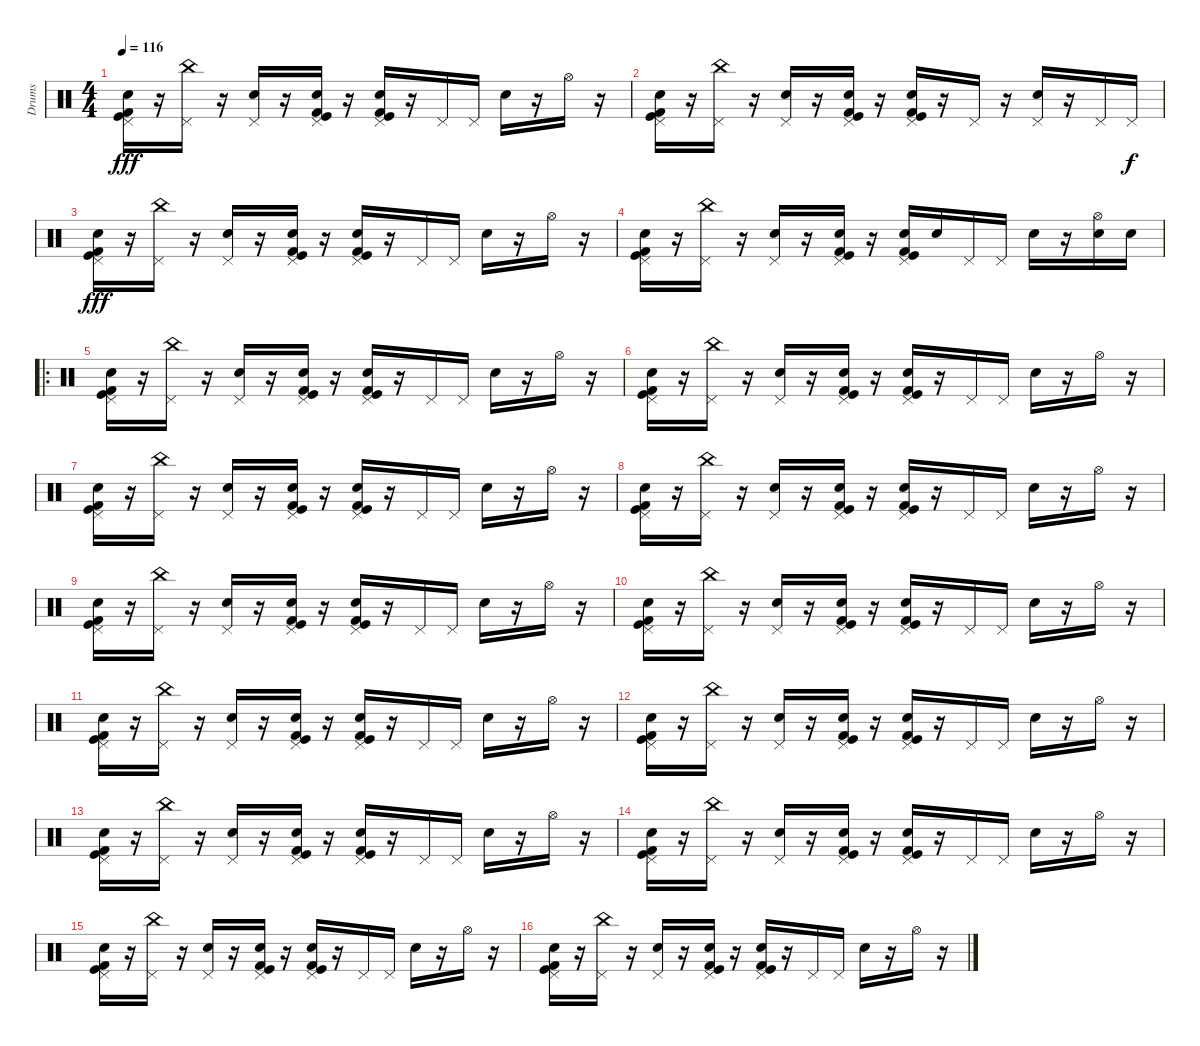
\track ("Drums" "Drums") {instrument percussion}
\staff {score}
\articulation defaults
\ts (4 4)
\tempo 116
\clef neutral
\ks c
("Snare (hit) 2" "Pedal Hi-Hat (hit)" "Kick (hit) 2" "Kick (hit)").16{dy fff} r.16 ("China (hit)" "Pedal Hi-Hat (hit)").16 r.16 ("Pedal Hi-Hat (hit)" "Electric Snare (hit)").16 r.16 ("Snare (hit) 2" "Pedal Hi-Hat (hit)" "Kick (hit) 2" "Kick (hit)").16 r.16 ("Snare (hit) 2" "Pedal Hi-Hat (hit)" "Kick (hit) 2" "Kick (hit)").16 r.16 "Pedal Hi-Hat (hit)".16 "Pedal Hi-Hat (hit)".16 "Electric Snare (hit)".16 r.16 "Hi-Hat (open)".16 r.16 |
("Snare (hit) 2" "Pedal Hi-Hat (hit)" "Kick (hit) 2" "Kick (hit)").16 r.16 ("China (hit)" "Pedal Hi-Hat (hit)").16 r.16 ("Pedal Hi-Hat (hit)" "Electric Snare (hit)").16 r.16 ("Snare (hit) 2" "Pedal Hi-Hat (hit)" "Kick (hit) 2" "Kick (hit)").16 r.16 ("Snare (hit) 2" "Pedal Hi-Hat (hit)" "Kick (hit) 2" "Kick (hit)").16 r.16 "Pedal Hi-Hat (hit)".16 r.16 ("Pedal Hi-Hat (hit)" "Electric Snare (hit)").16 r.16 "Pedal Hi-Hat (hit)".16 "Pedal Hi-Hat (hit)".16{dy f} |
("Snare (hit) 2" "Pedal Hi-Hat (hit)" "Kick (hit) 2" "Kick (hit)").16{dy fff} r.16 ("China (hit)" "Pedal Hi-Hat (hit)").16 r.16 ("Pedal Hi-Hat (hit)" "Electric Snare (hit)").16 r.16 ("Snare (hit) 2" "Pedal Hi-Hat (hit)" "Kick (hit) 2" "Kick (hit)").16 r.16 ("Snare (hit) 2" "Pedal Hi-Hat (hit)" "Kick (hit) 2" "Kick (hit)").16 r.16 "Pedal Hi-Hat (hit)".16 "Pedal Hi-Hat (hit)".16 "Electric Snare (hit)".16 r.16 "Hi-Hat (open)".16 r.16 |
("Snare (hit) 2" "Pedal Hi-Hat (hit)" "Kick (hit) 2" "Kick (hit)").16 r.16 ("China (hit)" "Pedal Hi-Hat (hit)").16 r.16 ("Pedal Hi-Hat (hit)" "Electric Snare (hit)").16 r.16 ("Snare (hit) 2" "Pedal Hi-Hat (hit)" "Kick (hit) 2" "Kick (hit)").16 r.16 ("Snare (hit) 2" "Pedal Hi-Hat (hit)" "Kick (hit) 2" "Kick (hit)").16 "Electric Snare (hit)".16 "Pedal Hi-Hat (hit)".16 "Pedal Hi-Hat (hit)".16 "Electric Snare (hit)".16 r.16 ("Electric Snare (hit)" "Hi-Hat (open)").16 "Electric Snare (hit)".16 |
\ro
("Snare (hit) 2" "Pedal Hi-Hat (hit)" "Kick (hit) 2" "Kick (hit)").16 r.16 ("China (hit)" "Pedal Hi-Hat (hit)").16 r.16 ("Pedal Hi-Hat (hit)" "Electric Snare (hit)").16 r.16 ("Snare (hit) 2" "Pedal Hi-Hat (hit)" "Kick (hit) 2" "Kick (hit)").16 r.16 ("Snare (hit) 2" "Pedal Hi-Hat (hit)" "Kick (hit) 2" "Kick (hit)").16 r.16 "Pedal Hi-Hat (hit)".16 "Pedal Hi-Hat (hit)".16 "Electric Snare (hit)".16 r.16 "Hi-Hat (open)".16 r.16 |
("Snare (hit) 2" "Pedal Hi-Hat (hit)" "Kick (hit) 2" "Kick (hit)").16 r.16 ("China (hit)" "Pedal Hi-Hat (hit)").16 r.16 ("Pedal Hi-Hat (hit)" "Electric Snare (hit)").16 r.16 ("Snare (hit) 2" "Pedal Hi-Hat (hit)" "Kick (hit) 2" "Kick (hit)").16 r.16 ("Snare (hit) 2" "Pedal Hi-Hat (hit)" "Kick (hit) 2" "Kick (hit)").16 r.16 "Pedal Hi-Hat (hit)".16 "Pedal Hi-Hat (hit)".16 "Electric Snare (hit)".16 r.16 "Hi-Hat (open)".16 r.16 |
("Snare (hit) 2" "Pedal Hi-Hat (hit)" "Kick (hit) 2" "Kick (hit)").16 r.16 ("China (hit)" "Pedal Hi-Hat (hit)").16 r.16 ("Pedal Hi-Hat (hit)" "Electric Snare (hit)").16 r.16 ("Snare (hit) 2" "Pedal Hi-Hat (hit)" "Kick (hit) 2" "Kick (hit)").16 r.16 ("Snare (hit) 2" "Pedal Hi-Hat (hit)" "Kick (hit) 2" "Kick (hit)").16 r.16 "Pedal Hi-Hat (hit)".16 "Pedal Hi-Hat (hit)".16 "Electric Snare (hit)".16 r.16 "Hi-Hat (open)".16 r.16 |
("Snare (hit) 2" "Pedal Hi-Hat (hit)" "Kick (hit) 2" "Kick (hit)").16 r.16 ("China (hit)" "Pedal Hi-Hat (hit)").16 r.16 ("Pedal Hi-Hat (hit)" "Electric Snare (hit)").16 r.16 ("Snare (hit) 2" "Pedal Hi-Hat (hit)" "Kick (hit) 2" "Kick (hit)").16 r.16 ("Snare (hit) 2" "Pedal Hi-Hat (hit)" "Kick (hit) 2" "Kick (hit)").16 r.16 "Pedal Hi-Hat (hit)".16 "Pedal Hi-Hat (hit)".16 "Electric Snare (hit)".16 r.16 "Hi-Hat (open)".16 r.16 |
("Snare (hit) 2" "Pedal Hi-Hat (hit)" "Kick (hit) 2" "Kick (hit)").16 r.16 ("China (hit)" "Pedal Hi-Hat (hit)").16 r.16 ("Pedal Hi-Hat (hit)" "Electric Snare (hit)").16 r.16 ("Snare (hit) 2" "Pedal Hi-Hat (hit)" "Kick (hit) 2" "Kick (hit)").16 r.16 ("Snare (hit) 2" "Pedal Hi-Hat (hit)" "Kick (hit) 2" "Kick (hit)").16 r.16 "Pedal Hi-Hat (hit)".16 "Pedal Hi-Hat (hit)".16 "Electric Snare (hit)".16 r.16 "Hi-Hat (open)".16 r.16 |
("Snare (hit) 2" "Pedal Hi-Hat (hit)" "Kick (hit) 2" "Kick (hit)").16 r.16 ("China (hit)" "Pedal Hi-Hat (hit)").16 r.16 ("Pedal Hi-Hat (hit)" "Electric Snare (hit)").16 r.16 ("Snare (hit) 2" "Pedal Hi-Hat (hit)" "Kick (hit) 2" "Kick (hit)").16 r.16 ("Snare (hit) 2" "Pedal Hi-Hat (hit)" "Kick (hit) 2" "Kick (hit)").16 r.16 "Pedal Hi-Hat (hit)".16 "Pedal Hi-Hat (hit)".16 "Electric Snare (hit)".16 r.16 "Hi-Hat (open)".16 r.16 |
("Snare (hit) 2" "Pedal Hi-Hat (hit)" "Kick (hit) 2" "Kick (hit)").16 r.16 ("China (hit)" "Pedal Hi-Hat (hit)").16 r.16 ("Pedal Hi-Hat (hit)" "Electric Snare (hit)").16 r.16 ("Snare (hit) 2" "Pedal Hi-Hat (hit)" "Kick (hit) 2" "Kick (hit)").16 r.16 ("Snare (hit) 2" "Pedal Hi-Hat (hit)" "Kick (hit) 2" "Kick (hit)").16 r.16 "Pedal Hi-Hat (hit)".16 "Pedal Hi-Hat (hit)".16 "Electric Snare (hit)".16 r.16 "Hi-Hat (open)".16 r.16 |
("Snare (hit) 2" "Pedal Hi-Hat (hit)" "Kick (hit) 2" "Kick (hit)").16 r.16 ("China (hit)" "Pedal Hi-Hat (hit)").16 r.16 ("Pedal Hi-Hat (hit)" "Electric Snare (hit)").16 r.16 ("Snare (hit) 2" "Pedal Hi-Hat (hit)" "Kick (hit) 2" "Kick (hit)").16 r.16 ("Snare (hit) 2" "Pedal Hi-Hat (hit)" "Kick (hit) 2" "Kick (hit)").16 r.16 "Pedal Hi-Hat (hit)".16 "Pedal Hi-Hat (hit)".16 "Electric Snare (hit)".16 r.16 "Hi-Hat (open)".16 r.16 |
("Snare (hit) 2" "Pedal Hi-Hat (hit)" "Kick (hit) 2" "Kick (hit)").16 r.16 ("China (hit)" "Pedal Hi-Hat (hit)").16 r.16 ("Pedal Hi-Hat (hit)" "Electric Snare (hit)").16 r.16 ("Snare (hit) 2" "Pedal Hi-Hat (hit)" "Kick (hit) 2" "Kick (hit)").16 r.16 ("Snare (hit) 2" "Pedal Hi-Hat (hit)" "Kick (hit) 2" "Kick (hit)").16 r.16 "Pedal Hi-Hat (hit)".16 "Pedal Hi-Hat (hit)".16 "Electric Snare (hit)".16 r.16 "Hi-Hat (open)".16 r.16 |
("Snare (hit) 2" "Pedal Hi-Hat (hit)" "Kick (hit) 2" "Kick (hit)").16 r.16 ("China (hit)" "Pedal Hi-Hat (hit)").16 r.16 ("Pedal Hi-Hat (hit)" "Electric Snare (hit)").16 r.16 ("Snare (hit) 2" "Pedal Hi-Hat (hit)" "Kick (hit) 2" "Kick (hit)").16 r.16 ("Snare (hit) 2" "Pedal Hi-Hat (hit)" "Kick (hit) 2" "Kick (hit)").16 r.16 "Pedal Hi-Hat (hit)".16 "Pedal Hi-Hat (hit)".16 "Electric Snare (hit)".16 r.16 "Hi-Hat (open)".16 r.16 |
("Snare (hit) 2" "Pedal Hi-Hat (hit)" "Kick (hit) 2" "Kick (hit)").16 r.16 ("China (hit)" "Pedal Hi-Hat (hit)").16 r.16 ("Pedal Hi-Hat (hit)" "Electric Snare (hit)").16 r.16 ("Snare (hit) 2" "Pedal Hi-Hat (hit)" "Kick (hit) 2" "Kick (hit)").16 r.16 ("Snare (hit) 2" "Pedal Hi-Hat (hit)" "Kick (hit) 2" "Kick (hit)").16 r.16 "Pedal Hi-Hat (hit)".16 "Pedal Hi-Hat (hit)".16 "Electric Snare (hit)".16 r.16 "Hi-Hat (open)".16 r.16 |
("Snare (hit) 2" "Pedal Hi-Hat (hit)" "Kick (hit) 2" "Kick (hit)").16 r.16 ("China (hit)" "Pedal Hi-Hat (hit)").16 r.16 ("Pedal Hi-Hat (hit)" "Electric Snare (hit)").16 r.16 ("Snare (hit) 2" "Pedal Hi-Hat (hit)" "Kick (hit) 2" "Kick (hit)").16 r.16 ("Snare (hit) 2" "Pedal Hi-Hat (hit)" "Kick (hit) 2" "Kick (hit)").16 r.16 "Pedal Hi-Hat (hit)".16 "Pedal Hi-Hat (hit)".16 "Electric Snare (hit)".16 r.16 "Hi-Hat (open)".16 r.16
